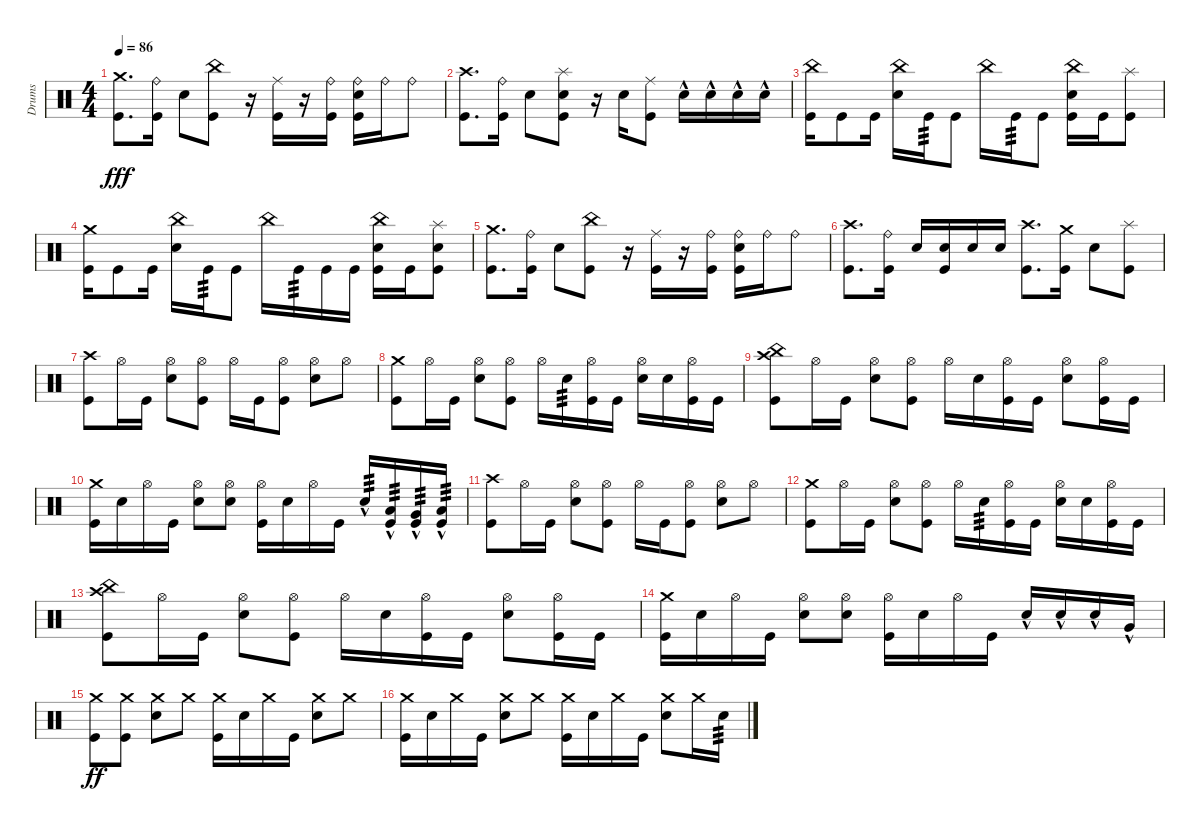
\track ("Drums" "Drums") {instrument percussion}
\staff {score}
\articulation defaults
\ts (4 4)
\tempo 86
\clef neutral
\ks c
("Crash medium (hit)" "Kick (hit)").8{d dy fff} ("Ride (bell)" "Kick (hit)").16 "Snare (hit) 2".8 ("China (hit)" "Kick (hit)").8 r.16 ("Ride (middle)" "Kick (hit)").16 r.16 ("Ride (bell)" "Kick (hit)").16 ("Ride (bell)" "Snare (hit) 2" "Kick (hit)").16 "Ride (bell)".16 "Ride (bell)".8 |
("Crash high (hit)" "Kick (hit)").8{d} ("Ride (bell)" "Kick (hit)").16 "Snare (hit) 2".8 ("Splash (hit)" "Snare (hit) 2" "Kick (hit)").8 r.16 "Snare (hit) 2".16 ("Ride (middle)" "Kick (hit)").8 "Snare (hit) 2"{hac}.16 "Snare (hit) 2"{hac}.16 "Snare (hit) 2"{hac}.16 "Snare (hit) 2"{hac}.16 |
("China (hit)" "Kick (hit)").16 "Kick (hit)".8 "Kick (hit)".16 ("China (hit)" "Snare (hit) 2").16 "Kick (hit)".16{tp 3} "Kick (hit)".8 "China (hit)".16 "Kick (hit)".16{tp 3} "Kick (hit)".8 ("China (hit)" "Snare (hit) 2" "Kick (hit)").16 "Kick (hit)".16 ("Splash (hit)" "Kick (hit)").8 |
("Crash medium (hit)" "Kick (hit)").16 "Kick (hit)".8 "Kick (hit)".16 ("China (hit)" "Snare (hit) 2").16 "Kick (hit)".16{tp 3} "Kick (hit)".8 "China (hit)".16 "Kick (hit)".16{tp 3} "Kick (hit)".16 "Kick (hit)".16 ("China (hit)" "Snare (hit) 2" "Kick (hit)").16 "Kick (hit)".16 ("Splash (hit)" "Snare (hit) 2" "Kick (hit)").8 |
("Crash medium (hit)" "Kick (hit)").8{d} ("Ride (bell)" "Kick (hit)").16 "Snare (hit) 2".8 ("China (hit)" "Kick (hit)").8 r.16 ("Ride (middle)" "Kick (hit)").16 r.16 ("Ride (bell)" "Kick (hit)").16 ("Ride (bell)" "Snare (hit) 2" "Kick (hit)").16 "Ride (bell)".16 "Ride (bell)".8 |
("Crash high (hit)" "Kick (hit)").8{d} ("Ride (bell)" "Kick (hit)").16 "Snare (hit) 2".16 ("Snare (hit) 2" "Kick (hit)").16 "Snare (hit) 2".16 "Snare (hit) 2".16 ("Crash high (hit)" "Kick (hit)").8{d} ("Crash medium (hit)" "Kick (hit)").16 "Snare (hit) 2".8 ("Splash (hit)" "Kick (hit)").8 |
("Crash high (hit)" "Kick (hit)").8 "Hi-Hat (open)".16 "Kick (hit)".16 ("Hi-Hat (open)" "Snare (hit) 2").8 ("Hi-Hat (open)" "Kick (hit)").8 "Hi-Hat (open)".16 "Kick (hit)".16 ("Hi-Hat (open)" "Kick (hit)").8 ("Hi-Hat (open)" "Snare (hit) 2").8 "Hi-Hat (open)".8 |
("Crash medium (hit)" "Kick (hit)").8 "Hi-Hat (open)".16 "Kick (hit)".16 ("Hi-Hat (open)" "Snare (hit) 2").8 ("Hi-Hat (open)" "Kick (hit)").8 "Hi-Hat (open)".16 "Snare (hit) 2".16{tp 3} ("Hi-Hat (open)" "Kick (hit)").16 "Kick (hit)".16 ("Hi-Hat (open)" "Snare (hit) 2").16 "Snare (hit) 2".16 ("Hi-Hat (open)" "Kick (hit)").16 "Kick (hit)".16 |
("Crash high (hit)" "China (hit)" "Kick (hit)").8 "Hi-Hat (open)".16 "Kick (hit)".16 ("Hi-Hat (open)" "Snare (hit) 2").8 ("Hi-Hat (open)" "Kick (hit)").8 "Hi-Hat (open)".16 "Snare (hit) 2".16 ("Hi-Hat (open)" "Kick (hit)").16 "Kick (hit)".16 ("Hi-Hat (open)" "Snare (hit) 2").8 ("Hi-Hat (open)" "Kick (hit)").16 "Kick (hit)".16 |
("Crash medium (hit)" "Kick (hit)").16 "Snare (hit) 2".16 "Hi-Hat (open)".16 "Kick (hit)".16 ("Hi-Hat (open)" "Snare (hit) 2").8 ("Hi-Hat (open)" "Snare (hit) 2").8 ("Hi-Hat (open)" "Kick (hit)").16 "Snare (hit) 2".16 "Hi-Hat (open)".16 "Kick (hit)".16 "Snare (hit) 2"{hac}.16{tp 3} ("Low Tom (hit)"{hac} "Kick (hit)").16{tp 3} ("Very Low Tom (hit)"{hac} "Kick (hit)").16{tp 3} ("Low Tom (hit)"{hac} "Kick (hit)").16{tp 3} |
("Crash high (hit)" "Kick (hit)").8 "Hi-Hat (open)".16 "Kick (hit)".16 ("Hi-Hat (open)" "Snare (hit) 2").8 ("Hi-Hat (open)" "Kick (hit)").8 "Hi-Hat (open)".16 "Kick (hit)".16 ("Hi-Hat (open)" "Kick (hit)").8 ("Hi-Hat (open)" "Snare (hit) 2").8 "Hi-Hat (open)".8 |
("Crash medium (hit)" "Kick (hit)").8 "Hi-Hat (open)".16 "Kick (hit)".16 ("Hi-Hat (open)" "Snare (hit) 2").8 ("Hi-Hat (open)" "Kick (hit)").8 "Hi-Hat (open)".16 "Snare (hit) 2".16{tp 3} ("Hi-Hat (open)" "Kick (hit)").16 "Kick (hit)".16 ("Hi-Hat (open)" "Snare (hit) 2").16 "Snare (hit) 2".16 ("Hi-Hat (open)" "Kick (hit)").16 "Kick (hit)".16 |
("Crash high (hit)" "China (hit)" "Kick (hit)").8 "Hi-Hat (open)".16 "Kick (hit)".16 ("Hi-Hat (open)" "Snare (hit) 2").8 ("Hi-Hat (open)" "Kick (hit)").8 "Hi-Hat (open)".16 "Snare (hit) 2".16 ("Hi-Hat (open)" "Kick (hit)").16 "Kick (hit)".16 ("Hi-Hat (open)" "Snare (hit) 2").8 ("Hi-Hat (open)" "Kick (hit)").16 "Kick (hit)".16 |
("Crash medium (hit)" "Kick (hit)").16 "Snare (hit) 2".16 "Hi-Hat (open)".16 "Kick (hit)".16 ("Hi-Hat (open)" "Snare (hit) 2").8 ("Hi-Hat (open)" "Snare (hit) 2").8 ("Hi-Hat (open)" "Kick (hit)").16 "Snare (hit) 2".16 "Hi-Hat (open)".16 "Kick (hit)".16 "Snare (hit) 2"{hac}.16 "Snare (hit) 2"{hac}.16 "Snare (hit) 2"{hac}.16 "Very Low Tom (hit)"{hac}.16 |
("Crash medium (hit)" "Kick (hit)").8{dy ff} ("Crash medium (hit)" "Kick (hit)").8 ("Crash medium (hit)" "Snare (hit) 2").8 "Crash medium (hit)".8 ("Crash medium (hit)" "Kick (hit)").16 "Snare (hit) 2".16 "Crash medium (hit)".16 "Kick (hit)".16 ("Crash medium (hit)" "Snare (hit) 2").8 "Crash medium (hit)".8 |
("Crash medium (hit)" "Kick (hit)").16 "Snare (hit) 2".16 "Crash medium (hit)".16 "Kick (hit)".16 ("Crash medium (hit)" "Snare (hit) 2").8 "Crash medium (hit)".8 ("Crash medium (hit)" "Kick (hit)").16 "Snare (hit) 2".16 "Crash medium (hit)".16 "Kick (hit)".16 ("Crash medium (hit)" "Snare (hit) 2").8 "Crash medium (hit)".16 "Snare (hit) 2".16{tp 3}
